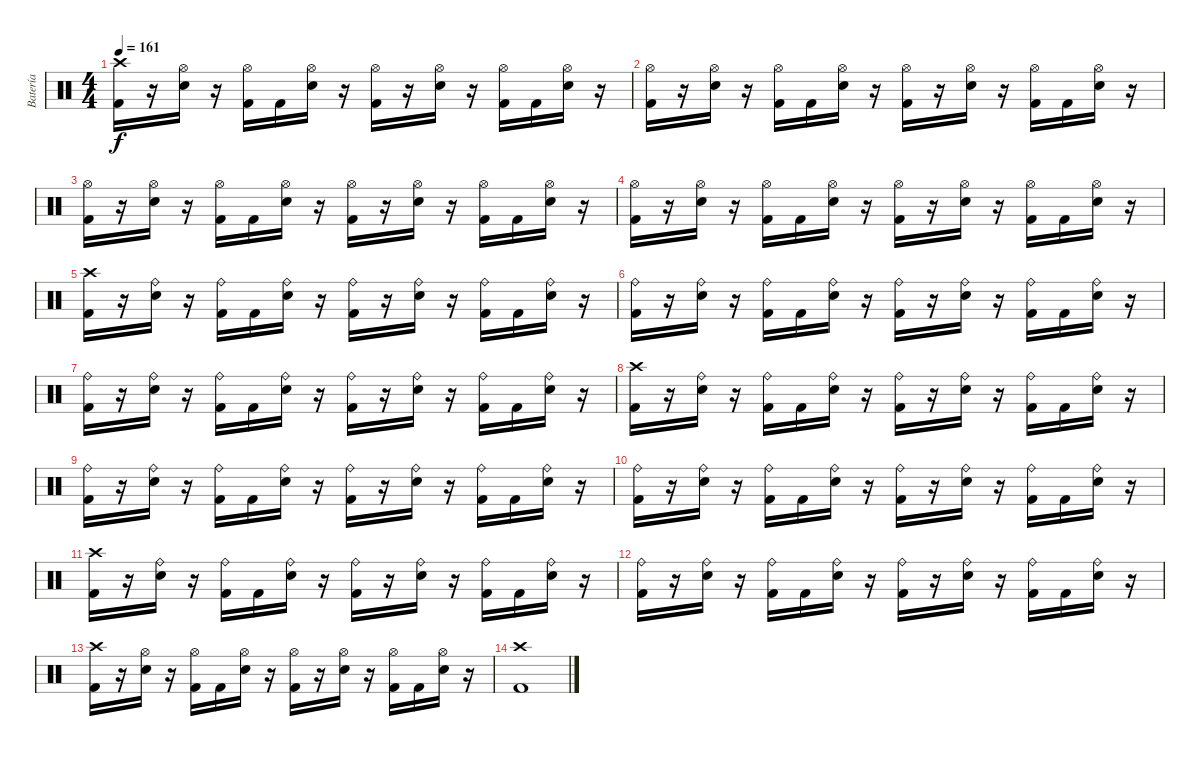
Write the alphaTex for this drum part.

\track ("Batería" "Batería") {instrument percussion}
\staff {score}
\articulation defaults
\ts (4 4)
\tempo 161
\clef neutral
\ks c
("Crash high (hit)" "Kick (hit) 2").16{dy f} r.16 ("Hi-Hat (open)" "Electric Snare (hit)").16 r.16 ("Hi-Hat (open)" "Kick (hit) 2").16 "Kick (hit) 2".16 ("Hi-Hat (open)" "Electric Snare (hit)").16 r.16 ("Hi-Hat (open)" "Kick (hit) 2").16 r.16 ("Hi-Hat (open)" "Electric Snare (hit)").16 r.16 ("Hi-Hat (open)" "Kick (hit) 2").16 "Kick (hit) 2".16 ("Hi-Hat (open)" "Electric Snare (hit)").16 r.16 |
("Hi-Hat (open)" "Kick (hit) 2").16 r.16 ("Hi-Hat (open)" "Electric Snare (hit)").16 r.16 ("Hi-Hat (open)" "Kick (hit) 2").16 "Kick (hit) 2".16 ("Hi-Hat (open)" "Electric Snare (hit)").16 r.16 ("Hi-Hat (open)" "Kick (hit) 2").16 r.16 ("Hi-Hat (open)" "Electric Snare (hit)").16 r.16 ("Hi-Hat (open)" "Kick (hit) 2").16 "Kick (hit) 2".16 ("Hi-Hat (open)" "Electric Snare (hit)").16 r.16 |
("Hi-Hat (open)" "Kick (hit) 2").16 r.16 ("Hi-Hat (open)" "Electric Snare (hit)").16 r.16 ("Hi-Hat (open)" "Kick (hit) 2").16 "Kick (hit) 2".16 ("Hi-Hat (open)" "Electric Snare (hit)").16 r.16 ("Hi-Hat (open)" "Kick (hit) 2").16 r.16 ("Hi-Hat (open)" "Electric Snare (hit)").16 r.16 ("Hi-Hat (open)" "Kick (hit) 2").16 "Kick (hit) 2".16 ("Hi-Hat (open)" "Electric Snare (hit)").16 r.16 |
("Hi-Hat (open)" "Kick (hit) 2").16 r.16 ("Hi-Hat (open)" "Electric Snare (hit)").16 r.16 ("Hi-Hat (open)" "Kick (hit) 2").16 "Kick (hit) 2".16 ("Hi-Hat (open)" "Electric Snare (hit)").16 r.16 ("Hi-Hat (open)" "Kick (hit) 2").16 r.16 ("Hi-Hat (open)" "Electric Snare (hit)").16 r.16 ("Hi-Hat (open)" "Kick (hit) 2").16 "Kick (hit) 2".16 ("Hi-Hat (open)" "Electric Snare (hit)").16 r.16 |
("Crash high (hit)" "Kick (hit) 2").16 r.16 ("Ride (bell)" "Electric Snare (hit)").16 r.16 ("Ride (bell)" "Kick (hit) 2").16 "Kick (hit) 2".16 ("Ride (bell)" "Electric Snare (hit)").16 r.16 ("Ride (bell)" "Kick (hit) 2").16 r.16 ("Ride (bell)" "Electric Snare (hit)").16 r.16 ("Ride (bell)" "Kick (hit) 2").16 "Kick (hit) 2".16 ("Ride (bell)" "Electric Snare (hit)").16 r.16 |
("Ride (bell)" "Kick (hit) 2").16 r.16 ("Ride (bell)" "Electric Snare (hit)").16 r.16 ("Ride (bell)" "Kick (hit) 2").16 "Kick (hit) 2".16 ("Ride (bell)" "Electric Snare (hit)").16 r.16 ("Ride (bell)" "Kick (hit) 2").16 r.16 ("Ride (bell)" "Electric Snare (hit)").16 r.16 ("Ride (bell)" "Kick (hit) 2").16 "Kick (hit) 2".16 ("Ride (bell)" "Electric Snare (hit)").16 r.16 |
("Ride (bell)" "Kick (hit) 2").16 r.16 ("Ride (bell)" "Electric Snare (hit)").16 r.16 ("Ride (bell)" "Kick (hit) 2").16 "Kick (hit) 2".16 ("Ride (bell)" "Electric Snare (hit)").16 r.16 ("Ride (bell)" "Kick (hit) 2").16 r.16 ("Ride (bell)" "Electric Snare (hit)").16 r.16 ("Ride (bell)" "Kick (hit) 2").16 "Kick (hit) 2".16 ("Ride (bell)" "Electric Snare (hit)").16 r.16 |
("Crash high (hit)" "Kick (hit) 2").16 r.16 ("Ride (bell)" "Electric Snare (hit)").16 r.16 ("Ride (bell)" "Kick (hit) 2").16 "Kick (hit) 2".16 ("Ride (bell)" "Electric Snare (hit)").16 r.16 ("Ride (bell)" "Kick (hit) 2").16 r.16 ("Ride (bell)" "Electric Snare (hit)").16 r.16 ("Ride (bell)" "Kick (hit) 2").16 "Kick (hit) 2".16 ("Ride (bell)" "Electric Snare (hit)").16 r.16 |
("Ride (bell)" "Kick (hit) 2").16 r.16 ("Ride (bell)" "Electric Snare (hit)").16 r.16 ("Ride (bell)" "Kick (hit) 2").16 "Kick (hit) 2".16 ("Ride (bell)" "Electric Snare (hit)").16 r.16 ("Ride (bell)" "Kick (hit) 2").16 r.16 ("Ride (bell)" "Electric Snare (hit)").16 r.16 ("Ride (bell)" "Kick (hit) 2").16 "Kick (hit) 2".16 ("Ride (bell)" "Electric Snare (hit)").16 r.16 |
("Ride (bell)" "Kick (hit) 2").16 r.16 ("Ride (bell)" "Electric Snare (hit)").16 r.16 ("Ride (bell)" "Kick (hit) 2").16 "Kick (hit) 2".16 ("Ride (bell)" "Electric Snare (hit)").16 r.16 ("Ride (bell)" "Kick (hit) 2").16 r.16 ("Ride (bell)" "Electric Snare (hit)").16 r.16 ("Ride (bell)" "Kick (hit) 2").16 "Kick (hit) 2".16 ("Ride (bell)" "Electric Snare (hit)").16 r.16 |
("Crash high (hit)" "Kick (hit) 2").16 r.16 ("Ride (bell)" "Electric Snare (hit)").16 r.16 ("Ride (bell)" "Kick (hit) 2").16 "Kick (hit) 2".16 ("Ride (bell)" "Electric Snare (hit)").16 r.16 ("Ride (bell)" "Kick (hit) 2").16 r.16 ("Ride (bell)" "Electric Snare (hit)").16 r.16 ("Ride (bell)" "Kick (hit) 2").16 "Kick (hit) 2".16 ("Ride (bell)" "Electric Snare (hit)").16 r.16 |
("Ride (bell)" "Kick (hit) 2").16 r.16 ("Ride (bell)" "Electric Snare (hit)").16 r.16 ("Ride (bell)" "Kick (hit) 2").16 "Kick (hit) 2".16 ("Ride (bell)" "Electric Snare (hit)").16 r.16 ("Ride (bell)" "Kick (hit) 2").16 r.16 ("Ride (bell)" "Electric Snare (hit)").16 r.16 ("Ride (bell)" "Kick (hit) 2").16 "Kick (hit) 2".16 ("Ride (bell)" "Electric Snare (hit)").16 r.16 |
("Crash high (hit)" "Kick (hit) 2").16 r.16 ("Hi-Hat (open)" "Electric Snare (hit)").16 r.16 ("Hi-Hat (open)" "Kick (hit) 2").16 "Kick (hit) 2".16 ("Hi-Hat (open)" "Electric Snare (hit)").16 r.16 ("Hi-Hat (open)" "Kick (hit) 2").16 r.16 ("Hi-Hat (open)" "Electric Snare (hit)").16 r.16 ("Hi-Hat (open)" "Kick (hit) 2").16 "Kick (hit) 2".16 ("Hi-Hat (open)" "Electric Snare (hit)").16 r.16 |
("Crash high (hit)" "Kick (hit) 2").1
